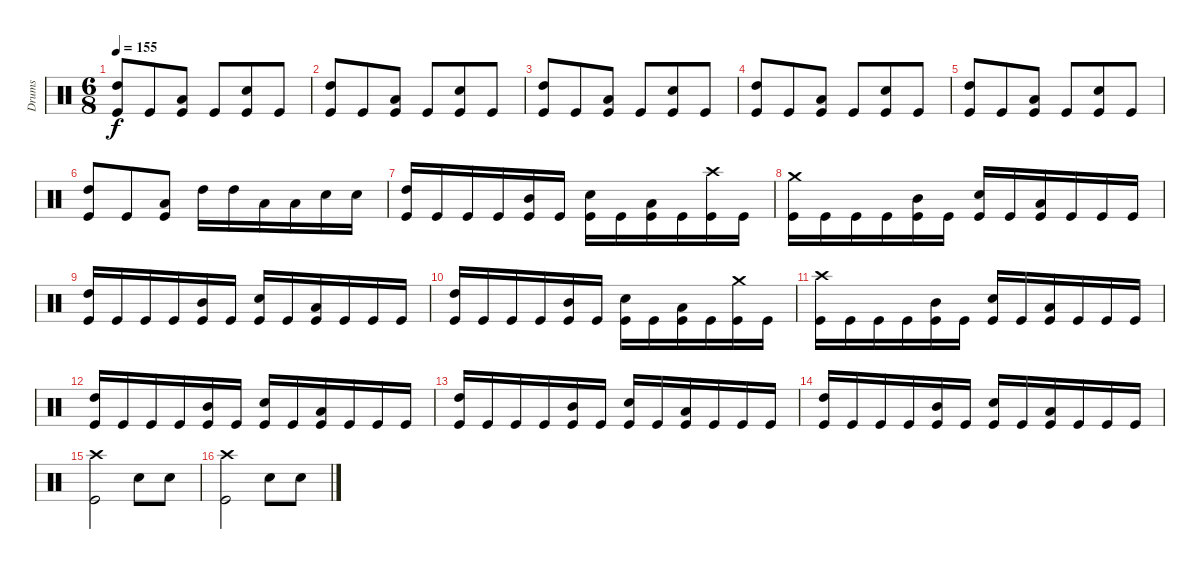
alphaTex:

\track ("Drums" "Drums") {instrument percussion}
\staff {score}
\articulation defaults
\ts (6 8)
\tempo 155
\clef neutral
\ks c
("Kick (hit)" "High Tom (hit)").8{dy f} "Kick (hit)".8 ("Kick (hit)" "Low Tom (hit)").8 "Kick (hit)".8 ("Kick (hit)" "Snare (hit) 2").8 "Kick (hit)".8 |
("Kick (hit)" "High Tom (hit)").8 "Kick (hit)".8 ("Kick (hit)" "Low Tom (hit)").8 "Kick (hit)".8 ("Kick (hit)" "Snare (hit) 2").8 "Kick (hit)".8 |
("Kick (hit)" "High Tom (hit)").8 "Kick (hit)".8 ("Kick (hit)" "Low Tom (hit)").8 "Kick (hit)".8 ("Kick (hit)" "Snare (hit) 2").8 "Kick (hit)".8 |
("Kick (hit)" "High Tom (hit)").8 "Kick (hit)".8 ("Kick (hit)" "Low Tom (hit)").8 "Kick (hit)".8 ("Kick (hit)" "Snare (hit) 2").8 "Kick (hit)".8 |
("Kick (hit)" "High Tom (hit)").8 "Kick (hit)".8 ("Kick (hit)" "Low Tom (hit)").8 "Kick (hit)".8 ("Kick (hit)" "Snare (hit) 2").8 "Kick (hit)".8 |
("Kick (hit)" "High Tom (hit)").8 "Kick (hit)".8 ("Kick (hit)" "Low Tom (hit)").8 "High Tom (hit)".16 "High Tom (hit)".16 "Low Tom (hit)".16 "Low Tom (hit)".16 "Snare (hit) 2".16 "Snare (hit) 2".16 |
("Kick (hit)" "High Tom (hit)").16 "Kick (hit)".16 "Kick (hit)".16 "Kick (hit)".16 ("Kick (hit)" "Mid Tom (hit)").16 "Kick (hit)".16 ("Kick (hit)" "Snare (hit) 2").16 "Kick (hit)".16 ("Kick (hit)" "Low Tom (hit)").16 "Kick (hit)".16 ("Kick (hit)" "Crash high (hit)").16 "Kick (hit)".16 |
("Kick (hit)" "Crash medium (hit)").16 "Kick (hit)".16 "Kick (hit)".16 "Kick (hit)".16 ("Kick (hit)" "Mid Tom (hit)").16 "Kick (hit)".16 ("Kick (hit)" "Snare (hit) 2").16 "Kick (hit)".16 ("Kick (hit)" "Low Tom (hit)").16 "Kick (hit)".16 "Kick (hit)".16 "Kick (hit)".16 |
("Kick (hit)" "High Tom (hit)").16 "Kick (hit)".16 "Kick (hit)".16 "Kick (hit)".16 ("Kick (hit)" "Mid Tom (hit)").16 "Kick (hit)".16 ("Kick (hit)" "Snare (hit) 2").16 "Kick (hit)".16 ("Kick (hit)" "Low Tom (hit)").16 "Kick (hit)".16 "Kick (hit)".16 "Kick (hit)".16 |
("Kick (hit)" "High Tom (hit)").16 "Kick (hit)".16 "Kick (hit)".16 "Kick (hit)".16 ("Kick (hit)" "Mid Tom (hit)").16 "Kick (hit)".16 ("Kick (hit)" "Snare (hit) 2").16 "Kick (hit)".16 ("Kick (hit)" "Low Tom (hit)").16 "Kick (hit)".16 ("Kick (hit)" "Crash medium (hit)").16 "Kick (hit)".16 |
("Kick (hit)" "Crash high (hit)").16 "Kick (hit)".16 "Kick (hit)".16 "Kick (hit)".16 ("Kick (hit)" "Mid Tom (hit)").16 "Kick (hit)".16 ("Kick (hit)" "Snare (hit) 2").16 "Kick (hit)".16 ("Kick (hit)" "Low Tom (hit)").16 "Kick (hit)".16 "Kick (hit)".16 "Kick (hit)".16 |
("Kick (hit)" "High Tom (hit)").16 "Kick (hit)".16 "Kick (hit)".16 "Kick (hit)".16 ("Kick (hit)" "Mid Tom (hit)").16 "Kick (hit)".16 ("Kick (hit)" "Snare (hit) 2").16 "Kick (hit)".16 ("Kick (hit)" "Low Tom (hit)").16 "Kick (hit)".16 "Kick (hit)".16 "Kick (hit)".16 |
("Kick (hit)" "High Tom (hit)").16 "Kick (hit)".16 "Kick (hit)".16 "Kick (hit)".16 ("Kick (hit)" "Mid Tom (hit)").16 "Kick (hit)".16 ("Kick (hit)" "Snare (hit) 2").16 "Kick (hit)".16 ("Kick (hit)" "Low Tom (hit)").16 "Kick (hit)".16 "Kick (hit)".16 "Kick (hit)".16 |
("Kick (hit)" "High Tom (hit)").16 "Kick (hit)".16 "Kick (hit)".16 "Kick (hit)".16 ("Kick (hit)" "Mid Tom (hit)").16 "Kick (hit)".16 ("Kick (hit)" "Snare (hit) 2").16 "Kick (hit)".16 ("Kick (hit)" "Low Tom (hit)").16 "Kick (hit)".16 "Kick (hit)".16 "Kick (hit)".16 |
("Kick (hit)" "Crash high (hit)").2 "Snare (hit) 2".8 "Snare (hit) 2".8 |
("Kick (hit)" "Crash high (hit)").2 "Snare (hit) 2".8 "Snare (hit) 2".8
